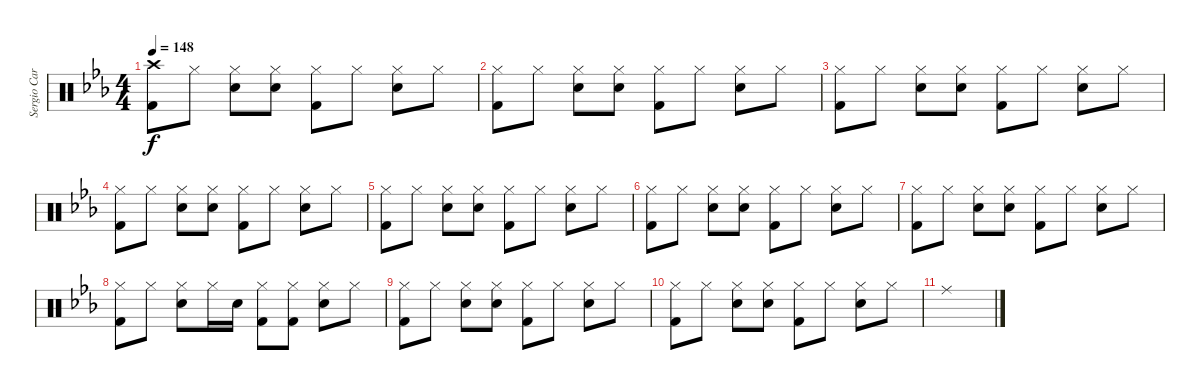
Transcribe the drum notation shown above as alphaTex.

\track ("Sergio Carnevale [Batteria]" "Sergio Car") {instrument percussion}
\staff {score}
\articulation defaults
\ts (4 4)
\tempo 148
\clef neutral
\ks cminor
("Crash high (hit)" "Kick (hit) 2").8{dy f} "Hi-Hat (closed)".8 ("Hi-Hat (closed)" "Snare (hit) 2").8 ("Hi-Hat (closed)" "Snare (hit) 2").8 ("Hi-Hat (closed)" "Kick (hit) 2").8 "Hi-Hat (closed)".8 ("Hi-Hat (closed)" "Snare (hit) 2").8 "Hi-Hat (closed)".8 |
("Hi-Hat (closed)" "Kick (hit) 2").8 "Hi-Hat (closed)".8 ("Hi-Hat (closed)" "Snare (hit) 2").8 ("Hi-Hat (closed)" "Snare (hit) 2").8 ("Hi-Hat (closed)" "Kick (hit) 2").8 "Hi-Hat (closed)".8 ("Hi-Hat (closed)" "Snare (hit) 2").8 "Hi-Hat (closed)".8 |
("Hi-Hat (closed)" "Kick (hit) 2").8 "Hi-Hat (closed)".8 ("Hi-Hat (closed)" "Snare (hit) 2").8 ("Hi-Hat (closed)" "Snare (hit) 2").8 ("Hi-Hat (closed)" "Kick (hit) 2").8 "Hi-Hat (closed)".8 ("Hi-Hat (closed)" "Snare (hit) 2").8 "Hi-Hat (closed)".8 |
("Hi-Hat (closed)" "Kick (hit) 2").8 "Hi-Hat (closed)".8 ("Hi-Hat (closed)" "Snare (hit) 2").8 ("Hi-Hat (closed)" "Snare (hit) 2").8 ("Hi-Hat (closed)" "Kick (hit) 2").8 "Hi-Hat (closed)".8 ("Hi-Hat (closed)" "Snare (hit) 2").8 "Hi-Hat (closed)".8 |
("Hi-Hat (closed)" "Kick (hit) 2").8 "Hi-Hat (closed)".8 ("Hi-Hat (closed)" "Snare (hit) 2").8 ("Hi-Hat (closed)" "Snare (hit) 2").8 ("Hi-Hat (closed)" "Kick (hit) 2").8 "Hi-Hat (closed)".8 ("Hi-Hat (closed)" "Snare (hit) 2").8 "Hi-Hat (closed)".8 |
("Hi-Hat (closed)" "Kick (hit) 2").8 "Hi-Hat (closed)".8 ("Hi-Hat (closed)" "Snare (hit) 2").8 ("Hi-Hat (closed)" "Snare (hit) 2").8 ("Hi-Hat (closed)" "Kick (hit) 2").8 "Hi-Hat (closed)".8 ("Hi-Hat (closed)" "Snare (hit) 2").8 "Hi-Hat (closed)".8 |
("Hi-Hat (closed)" "Kick (hit) 2").8 "Hi-Hat (closed)".8 ("Hi-Hat (closed)" "Snare (hit) 2").8 ("Hi-Hat (closed)" "Snare (hit) 2").8 ("Hi-Hat (closed)" "Kick (hit) 2").8 "Hi-Hat (closed)".8 ("Hi-Hat (closed)" "Snare (hit) 2").8 "Hi-Hat (closed)".8 |
("Hi-Hat (closed)" "Kick (hit) 2").8 "Hi-Hat (closed)".8 ("Hi-Hat (closed)" "Snare (hit) 2").8 "Hi-Hat (closed)".16 "Snare (hit) 2".16 ("Hi-Hat (closed)" "Kick (hit) 2").8 ("Hi-Hat (closed)" "Kick (hit) 2").8 ("Hi-Hat (closed)" "Snare (hit) 2").8 "Hi-Hat (closed)".8 |
("Hi-Hat (closed)" "Kick (hit) 2").8 "Hi-Hat (closed)".8 ("Hi-Hat (closed)" "Snare (hit) 2").8 ("Hi-Hat (closed)" "Snare (hit) 2").8 ("Hi-Hat (closed)" "Kick (hit) 2").8 "Hi-Hat (closed)".8 ("Hi-Hat (closed)" "Snare (hit) 2").8 "Hi-Hat (closed)".8 |
("Hi-Hat (closed)" "Kick (hit) 2").8 "Hi-Hat (closed)".8 ("Hi-Hat (closed)" "Snare (hit) 2").8 ("Hi-Hat (closed)" "Snare (hit) 2").8 ("Hi-Hat (closed)" "Kick (hit) 2").8 "Hi-Hat (closed)".8 ("Hi-Hat (closed)" "Snare (hit) 2").8 "Hi-Hat (closed)".8 |
"Ride (middle)".1
